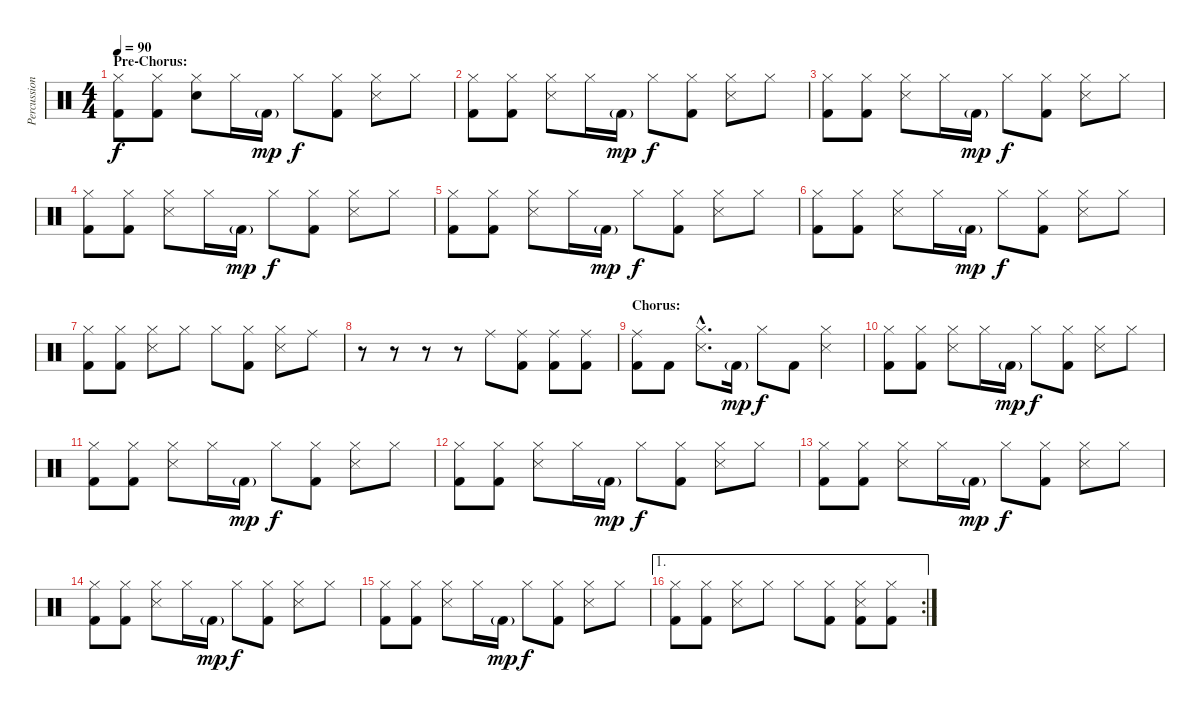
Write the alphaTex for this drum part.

\track ("Percussion" "Percussion") {instrument percussion}
\staff {score}
\articulation defaults
\ts (4 4)
\section ("" "Pre-Chorus:")
\tempo 90
\clef neutral
\ks c
("Hi-Hat (closed)" "Kick (hit) 2").8{dy f} ("Hi-Hat (closed)" "Kick (hit) 2").8 ("Hi-Hat (closed)" "Electric Snare (hit)").8 "Hi-Hat (closed)".16 "Kick (hit) 2"{g}.16{dy mp} "Hi-Hat (closed)".8{dy f} ("Hi-Hat (closed)" "Kick (hit) 2").8 ("Hi-Hat (closed)" "Snare (side stick) 3").8 "Hi-Hat (closed)".8 |
("Hi-Hat (closed)" "Kick (hit) 2").8 ("Hi-Hat (closed)" "Kick (hit) 2").8 ("Hi-Hat (closed)" "Snare (side stick) 3").8 "Hi-Hat (closed)".16 "Kick (hit) 2"{g}.16{dy mp} "Hi-Hat (closed)".8{dy f} ("Hi-Hat (closed)" "Kick (hit) 2").8 ("Hi-Hat (closed)" "Snare (side stick) 3").8 "Hi-Hat (closed)".8 |
("Hi-Hat (closed)" "Kick (hit) 2").8 ("Hi-Hat (closed)" "Kick (hit) 2").8 ("Hi-Hat (closed)" "Snare (side stick) 3").8 "Hi-Hat (closed)".16 "Kick (hit) 2"{g}.16{dy mp} "Hi-Hat (closed)".8{dy f} ("Hi-Hat (closed)" "Kick (hit) 2").8 ("Hi-Hat (closed)" "Snare (side stick) 3").8 "Hi-Hat (closed)".8 |
("Hi-Hat (closed)" "Kick (hit) 2").8 ("Hi-Hat (closed)" "Kick (hit) 2").8 ("Hi-Hat (closed)" "Snare (side stick) 3").8 "Hi-Hat (closed)".16 "Kick (hit) 2"{g}.16{dy mp} "Hi-Hat (closed)".8{dy f} ("Hi-Hat (closed)" "Kick (hit) 2").8 ("Hi-Hat (closed)" "Snare (side stick) 3").8 "Hi-Hat (closed)".8 |
("Hi-Hat (closed)" "Kick (hit) 2").8 ("Hi-Hat (closed)" "Kick (hit) 2").8 ("Hi-Hat (closed)" "Snare (side stick) 3").8 "Hi-Hat (closed)".16 "Kick (hit) 2"{g}.16{dy mp} "Hi-Hat (closed)".8{dy f} ("Hi-Hat (closed)" "Kick (hit) 2").8 ("Hi-Hat (closed)" "Snare (side stick) 3").8 "Hi-Hat (closed)".8 |
("Hi-Hat (closed)" "Kick (hit) 2").8 ("Hi-Hat (closed)" "Kick (hit) 2").8 ("Hi-Hat (closed)" "Snare (side stick) 3").8 "Hi-Hat (closed)".16 "Kick (hit) 2"{g}.16{dy mp} "Hi-Hat (closed)".8{dy f} ("Hi-Hat (closed)" "Kick (hit) 2").8 ("Hi-Hat (closed)" "Snare (side stick) 3").8 "Hi-Hat (closed)".8 |
("Hi-Hat (closed)" "Kick (hit) 2").8 ("Hi-Hat (closed)" "Kick (hit) 2").8 ("Hi-Hat (closed)" "Snare (side stick) 3").8 "Hi-Hat (closed)".8 "Hi-Hat (closed)".8 ("Hi-Hat (closed)" "Kick (hit) 2").8 ("Hi-Hat (closed)" "Snare (side stick) 3").8 "Ride (middle)".8 |
r.8 r.8 r.8 r.8 "Ride (middle)".8 ("Ride (middle)" "Kick (hit) 2").8 ("Ride (middle)" "Kick (hit) 2").8 ("Ride (middle)" "Kick (hit) 2").8 |
\section ("" "Chorus:")
("Ride (middle)" "Kick (hit) 2").8 "Kick (hit) 2".8 ("Hi-Hat (closed)"{hac} "Snare (side stick) 3"{hac}).8{d} "Kick (hit) 2"{g}.16{dy mp} "Hi-Hat (closed)".8{dy f} "Kick (hit) 2".8 ("Hi-Hat (closed)" "Snare (side stick) 3").4 |
("Hi-Hat (closed)" "Kick (hit) 2").8 ("Hi-Hat (closed)" "Kick (hit) 2").8 ("Hi-Hat (closed)" "Snare (side stick) 3").8 "Hi-Hat (closed)".16 "Kick (hit) 2"{g}.16{dy mp} "Hi-Hat (closed)".8{dy f} ("Hi-Hat (closed)" "Kick (hit) 2").8 ("Hi-Hat (closed)" "Snare (side stick) 3").8 "Hi-Hat (closed)".8 |
("Hi-Hat (closed)" "Kick (hit) 2").8 ("Hi-Hat (closed)" "Kick (hit) 2").8 ("Hi-Hat (closed)" "Snare (side stick) 3").8 "Hi-Hat (closed)".16 "Kick (hit) 2"{g}.16{dy mp} "Hi-Hat (closed)".8{dy f} ("Hi-Hat (closed)" "Kick (hit) 2").8 ("Hi-Hat (closed)" "Snare (side stick) 3").8 "Hi-Hat (closed)".8 |
("Hi-Hat (closed)" "Kick (hit) 2").8 ("Hi-Hat (closed)" "Kick (hit) 2").8 ("Hi-Hat (closed)" "Snare (side stick) 3").8 "Hi-Hat (closed)".16 "Kick (hit) 2"{g}.16{dy mp} "Hi-Hat (closed)".8{dy f} ("Hi-Hat (closed)" "Kick (hit) 2").8 ("Hi-Hat (closed)" "Snare (side stick) 3").8 "Hi-Hat (closed)".8 |
("Hi-Hat (closed)" "Kick (hit) 2").8 ("Hi-Hat (closed)" "Kick (hit) 2").8 ("Hi-Hat (closed)" "Snare (side stick) 3").8 "Hi-Hat (closed)".16 "Kick (hit) 2"{g}.16{dy mp} "Hi-Hat (closed)".8{dy f} ("Hi-Hat (closed)" "Kick (hit) 2").8 ("Hi-Hat (closed)" "Snare (side stick) 3").8 "Hi-Hat (closed)".8 |
("Hi-Hat (closed)" "Kick (hit) 2").8 ("Hi-Hat (closed)" "Kick (hit) 2").8 ("Hi-Hat (closed)" "Snare (side stick) 3").8 "Hi-Hat (closed)".16 "Kick (hit) 2"{g}.16{dy mp} "Hi-Hat (closed)".8{dy f} ("Hi-Hat (closed)" "Kick (hit) 2").8 ("Hi-Hat (closed)" "Snare (side stick) 3").8 "Hi-Hat (closed)".8 |
("Hi-Hat (closed)" "Kick (hit) 2").8 ("Hi-Hat (closed)" "Kick (hit) 2").8 ("Hi-Hat (closed)" "Snare (side stick) 3").8 "Hi-Hat (closed)".16 "Kick (hit) 2"{g}.16{dy mp} "Hi-Hat (closed)".8{dy f} ("Hi-Hat (closed)" "Kick (hit) 2").8 ("Hi-Hat (closed)" "Snare (side stick) 3").8 "Hi-Hat (closed)".8 |
\ae 1
\rc 2
("Hi-Hat (closed)" "Kick (hit) 2").8 ("Hi-Hat (closed)" "Kick (hit) 2").8 ("Hi-Hat (closed)" "Snare (side stick) 3").8 "Hi-Hat (closed)".8 "Hi-Hat (closed)".8 ("Hi-Hat (closed)" "Kick (hit) 2").8 ("Hi-Hat (closed)" "Snare (side stick) 3" "Kick (hit) 2").8 ("Hi-Hat (closed)" "Kick (hit) 2").8
